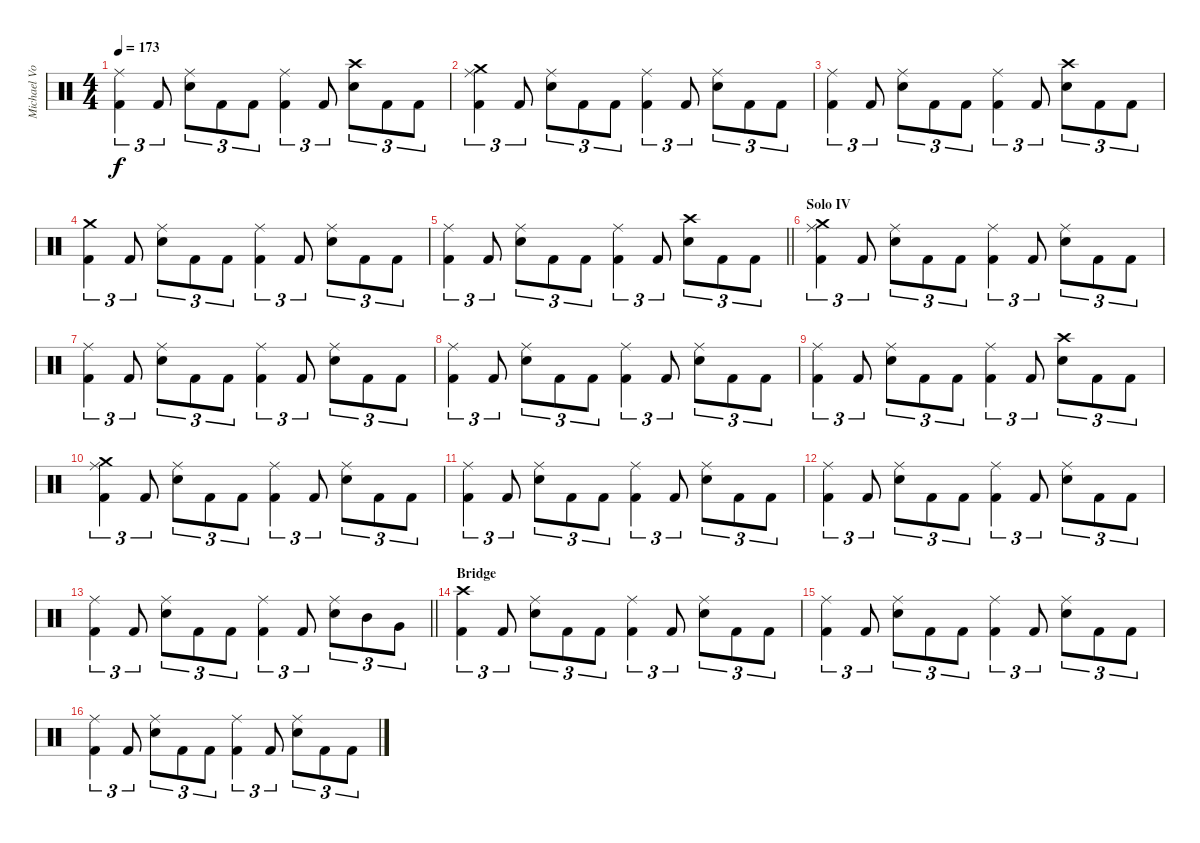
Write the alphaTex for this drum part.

\track ("Michael Von Knorring " "Michael Vo") {instrument percussion}
\staff {score}
\articulation defaults
\ts (4 4)
\tempo 173
\clef neutral
\ks c
("Ride (middle)" "Kick (hit) 2").4{tu (3 2) dy f} "Kick (hit) 2".8{tu (3 2)} ("Ride (middle)" "Snare (hit) 2").8{tu (3 2)} "Kick (hit) 2".8{tu (3 2)} "Kick (hit) 2".8{tu (3 2)} ("Ride (middle)" "Kick (hit) 2").4{tu (3 2)} "Kick (hit) 2".8{tu (3 2)} ("Crash high (hit)" "Snare (hit) 2").8{tu (3 2)} "Kick (hit) 2".8{tu (3 2)} "Kick (hit) 2".8{tu (3 2)} |
("Crash medium (hit)" "Ride (middle)" "Kick (hit) 2").4{tu (3 2)} "Kick (hit) 2".8{tu (3 2)} ("Ride (middle)" "Snare (hit) 2").8{tu (3 2)} "Kick (hit) 2".8{tu (3 2)} "Kick (hit) 2".8{tu (3 2)} ("Ride (middle)" "Kick (hit) 2").4{tu (3 2)} "Kick (hit) 2".8{tu (3 2)} ("Ride (middle)" "Snare (hit) 2").8{tu (3 2)} "Kick (hit) 2".8{tu (3 2)} "Kick (hit) 2".8{tu (3 2)} |
("Ride (middle)" "Kick (hit) 2").4{tu (3 2)} "Kick (hit) 2".8{tu (3 2)} ("Ride (middle)" "Snare (hit) 2").8{tu (3 2)} "Kick (hit) 2".8{tu (3 2)} "Kick (hit) 2".8{tu (3 2)} ("Ride (middle)" "Kick (hit) 2").4{tu (3 2)} "Kick (hit) 2".8{tu (3 2)} ("Crash high (hit)" "Snare (hit) 2").8{tu (3 2)} "Kick (hit) 2".8{tu (3 2)} "Kick (hit) 2".8{tu (3 2)} |
("Crash medium (hit)" "Kick (hit) 2").4{tu (3 2)} "Kick (hit) 2".8{tu (3 2)} ("Ride (middle)" "Snare (hit) 2").8{tu (3 2)} "Kick (hit) 2".8{tu (3 2)} "Kick (hit) 2".8{tu (3 2)} ("Ride (middle)" "Kick (hit) 2").4{tu (3 2)} "Kick (hit) 2".8{tu (3 2)} ("Ride (middle)" "Snare (hit) 2").8{tu (3 2)} "Kick (hit) 2".8{tu (3 2)} "Kick (hit) 2".8{tu (3 2)} |
\barLineRight lightlight
("Ride (middle)" "Kick (hit) 2").4{tu (3 2)} "Kick (hit) 2".8{tu (3 2)} ("Ride (middle)" "Snare (hit) 2").8{tu (3 2)} "Kick (hit) 2".8{tu (3 2)} "Kick (hit) 2".8{tu (3 2)} ("Ride (middle)" "Kick (hit) 2").4{tu (3 2)} "Kick (hit) 2".8{tu (3 2)} ("Crash high (hit)" "Snare (hit) 2").8{tu (3 2)} "Kick (hit) 2".8{tu (3 2)} "Kick (hit) 2".8{tu (3 2)} |
\section ("" "Solo IV")
("Crash medium (hit)" "Ride (middle)" "Kick (hit) 2").4{tu (3 2)} "Kick (hit) 2".8{tu (3 2)} ("Ride (middle)" "Snare (hit) 2").8{tu (3 2)} "Kick (hit) 2".8{tu (3 2)} "Kick (hit) 2".8{tu (3 2)} ("Ride (middle)" "Kick (hit) 2").4{tu (3 2)} "Kick (hit) 2".8{tu (3 2)} ("Ride (middle)" "Snare (hit) 2").8{tu (3 2)} "Kick (hit) 2".8{tu (3 2)} "Kick (hit) 2".8{tu (3 2)} |
("Ride (middle)" "Kick (hit) 2").4{tu (3 2)} "Kick (hit) 2".8{tu (3 2)} ("Ride (middle)" "Snare (hit) 2").8{tu (3 2)} "Kick (hit) 2".8{tu (3 2)} "Kick (hit) 2".8{tu (3 2)} ("Ride (middle)" "Kick (hit) 2").4{tu (3 2)} "Kick (hit) 2".8{tu (3 2)} ("Ride (middle)" "Snare (hit) 2").8{tu (3 2)} "Kick (hit) 2".8{tu (3 2)} "Kick (hit) 2".8{tu (3 2)} |
("Ride (middle)" "Kick (hit) 2").4{tu (3 2)} "Kick (hit) 2".8{tu (3 2)} ("Ride (middle)" "Snare (hit) 2").8{tu (3 2)} "Kick (hit) 2".8{tu (3 2)} "Kick (hit) 2".8{tu (3 2)} ("Ride (middle)" "Kick (hit) 2").4{tu (3 2)} "Kick (hit) 2".8{tu (3 2)} ("Ride (middle)" "Snare (hit) 2").8{tu (3 2)} "Kick (hit) 2".8{tu (3 2)} "Kick (hit) 2".8{tu (3 2)} |
("Ride (middle)" "Kick (hit) 2").4{tu (3 2)} "Kick (hit) 2".8{tu (3 2)} ("Ride (middle)" "Snare (hit) 2").8{tu (3 2)} "Kick (hit) 2".8{tu (3 2)} "Kick (hit) 2".8{tu (3 2)} ("Ride (middle)" "Kick (hit) 2").4{tu (3 2)} "Kick (hit) 2".8{tu (3 2)} ("Crash high (hit)" "Snare (hit) 2").8{tu (3 2)} "Kick (hit) 2".8{tu (3 2)} "Kick (hit) 2".8{tu (3 2)} |
("Crash medium (hit)" "Ride (middle)" "Kick (hit) 2").4{tu (3 2)} "Kick (hit) 2".8{tu (3 2)} ("Ride (middle)" "Snare (hit) 2").8{tu (3 2)} "Kick (hit) 2".8{tu (3 2)} "Kick (hit) 2".8{tu (3 2)} ("Ride (middle)" "Kick (hit) 2").4{tu (3 2)} "Kick (hit) 2".8{tu (3 2)} ("Ride (middle)" "Snare (hit) 2").8{tu (3 2)} "Kick (hit) 2".8{tu (3 2)} "Kick (hit) 2".8{tu (3 2)} |
("Ride (middle)" "Kick (hit) 2").4{tu (3 2)} "Kick (hit) 2".8{tu (3 2)} ("Ride (middle)" "Snare (hit) 2").8{tu (3 2)} "Kick (hit) 2".8{tu (3 2)} "Kick (hit) 2".8{tu (3 2)} ("Ride (middle)" "Kick (hit) 2").4{tu (3 2)} "Kick (hit) 2".8{tu (3 2)} ("Ride (middle)" "Snare (hit) 2").8{tu (3 2)} "Kick (hit) 2".8{tu (3 2)} "Kick (hit) 2".8{tu (3 2)} |
("Ride (middle)" "Kick (hit) 2").4{tu (3 2)} "Kick (hit) 2".8{tu (3 2)} ("Ride (middle)" "Snare (hit) 2").8{tu (3 2)} "Kick (hit) 2".8{tu (3 2)} "Kick (hit) 2".8{tu (3 2)} ("Ride (middle)" "Kick (hit) 2").4{tu (3 2)} "Kick (hit) 2".8{tu (3 2)} ("Ride (middle)" "Snare (hit) 2").8{tu (3 2)} "Kick (hit) 2".8{tu (3 2)} "Kick (hit) 2".8{tu (3 2)} |
\barLineRight lightlight
("Ride (middle)" "Kick (hit) 2").4{tu (3 2)} "Kick (hit) 2".8{tu (3 2)} ("Ride (middle)" "Snare (hit) 2").8{tu (3 2)} "Kick (hit) 2".8{tu (3 2)} "Kick (hit) 2".8{tu (3 2)} ("Ride (middle)" "Kick (hit) 2").4{tu (3 2)} "Kick (hit) 2".8{tu (3 2)} ("Ride (middle)" "Snare (hit) 2").8{tu (3 2)} "Mid Tom (hit)".8{tu (3 2)} "Very Low Tom (hit)".8{tu (3 2)} |
\section ("" "Bridge")
("Crash high (hit)" "Kick (hit) 2").4{tu (3 2)} "Kick (hit) 2".8{tu (3 2)} ("Ride (middle)" "Snare (hit) 2").8{tu (3 2)} "Kick (hit) 2".8{tu (3 2)} "Kick (hit) 2".8{tu (3 2)} ("Ride (middle)" "Kick (hit) 2").4{tu (3 2)} "Kick (hit) 2".8{tu (3 2)} ("Ride (middle)" "Snare (hit) 2").8{tu (3 2)} "Kick (hit) 2".8{tu (3 2)} "Kick (hit) 2".8{tu (3 2)} |
("Ride (middle)" "Kick (hit) 2").4{tu (3 2)} "Kick (hit) 2".8{tu (3 2)} ("Ride (middle)" "Snare (hit) 2").8{tu (3 2)} "Kick (hit) 2".8{tu (3 2)} "Kick (hit) 2".8{tu (3 2)} ("Ride (middle)" "Kick (hit) 2").4{tu (3 2)} "Kick (hit) 2".8{tu (3 2)} ("Ride (middle)" "Snare (hit) 2").8{tu (3 2)} "Kick (hit) 2".8{tu (3 2)} "Kick (hit) 2".8{tu (3 2)} |
("Ride (middle)" "Kick (hit) 2").4{tu (3 2)} "Kick (hit) 2".8{tu (3 2)} ("Ride (middle)" "Snare (hit) 2").8{tu (3 2)} "Kick (hit) 2".8{tu (3 2)} "Kick (hit) 2".8{tu (3 2)} ("Ride (middle)" "Kick (hit) 2").4{tu (3 2)} "Kick (hit) 2".8{tu (3 2)} ("Ride (middle)" "Snare (hit) 2").8{tu (3 2)} "Kick (hit) 2".8{tu (3 2)} "Kick (hit) 2".8{tu (3 2)}
